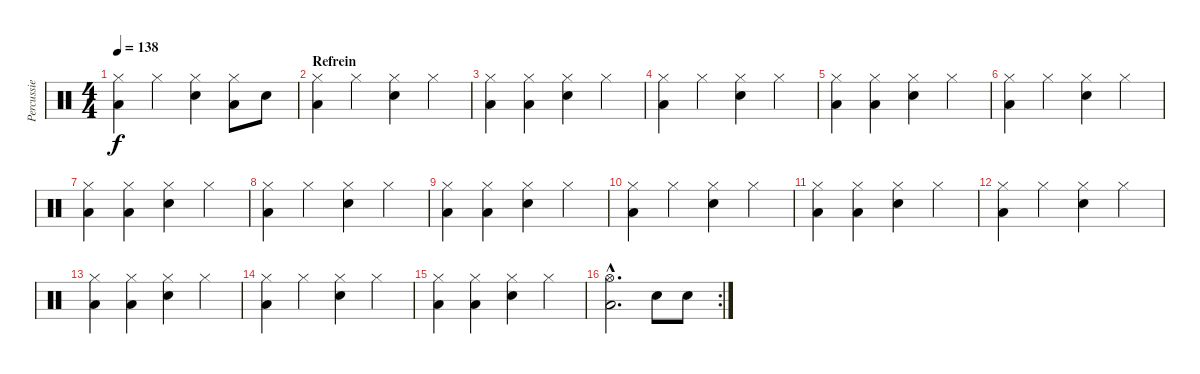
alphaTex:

\track ("Percussie" "Percussie") {instrument percussion}
\staff {score}
\articulation defaults
\ts (4 4)
\tempo 138
\clef neutral
\ks c
("Hi-Hat (closed)" "Low Floor Tom (hit)").4{dy f} "Hi-Hat (closed)".4 ("Hi-Hat (closed)" "Snare (hit) 2").4 ("Hi-Hat (closed)" "Low Floor Tom (hit)").8 "Snare (hit) 2".8 |
\section ("" "Refrein")
("Hi-Hat (closed)" "Low Floor Tom (hit)").4 "Hi-Hat (closed)".4 ("Hi-Hat (closed)" "Snare (hit) 2").4 "Hi-Hat (closed)".4 |
("Hi-Hat (closed)" "Low Floor Tom (hit)").4 ("Hi-Hat (closed)" "Low Floor Tom (hit)").4 ("Hi-Hat (closed)" "Snare (hit) 2").4 "Hi-Hat (closed)".4 |
("Hi-Hat (closed)" "Low Floor Tom (hit)").4 "Hi-Hat (closed)".4 ("Hi-Hat (closed)" "Snare (hit) 2").4 "Hi-Hat (closed)".4 |
("Hi-Hat (closed)" "Low Floor Tom (hit)").4 ("Hi-Hat (closed)" "Low Floor Tom (hit)").4 ("Hi-Hat (closed)" "Snare (hit) 2").4 "Hi-Hat (closed)".4 |
("Hi-Hat (closed)" "Low Floor Tom (hit)").4 "Hi-Hat (closed)".4 ("Hi-Hat (closed)" "Snare (hit) 2").4 "Hi-Hat (closed)".4 |
("Hi-Hat (closed)" "Low Floor Tom (hit)").4 ("Hi-Hat (closed)" "Low Floor Tom (hit)").4 ("Hi-Hat (closed)" "Snare (hit) 2").4 "Hi-Hat (closed)".4 |
("Hi-Hat (closed)" "Low Floor Tom (hit)").4 "Hi-Hat (closed)".4 ("Hi-Hat (closed)" "Snare (hit) 2").4 "Hi-Hat (closed)".4 |
("Hi-Hat (closed)" "Low Floor Tom (hit)").4 ("Hi-Hat (closed)" "Low Floor Tom (hit)").4 ("Hi-Hat (closed)" "Snare (hit) 2").4 "Hi-Hat (closed)".4 |
("Hi-Hat (closed)" "Low Floor Tom (hit)").4 "Hi-Hat (closed)".4 ("Hi-Hat (closed)" "Snare (hit) 2").4 "Hi-Hat (closed)".4 |
("Hi-Hat (closed)" "Low Floor Tom (hit)").4 ("Hi-Hat (closed)" "Low Floor Tom (hit)").4 ("Hi-Hat (closed)" "Snare (hit) 2").4 "Hi-Hat (closed)".4 |
("Hi-Hat (closed)" "Low Floor Tom (hit)").4 "Hi-Hat (closed)".4 ("Hi-Hat (closed)" "Snare (hit) 2").4 "Hi-Hat (closed)".4 |
("Hi-Hat (closed)" "Low Floor Tom (hit)").4 ("Hi-Hat (closed)" "Low Floor Tom (hit)").4 ("Hi-Hat (closed)" "Snare (hit) 2").4 "Hi-Hat (closed)".4 |
("Hi-Hat (closed)" "Low Floor Tom (hit)").4 "Hi-Hat (closed)".4 ("Hi-Hat (closed)" "Snare (hit) 2").4 "Hi-Hat (closed)".4 |
("Hi-Hat (closed)" "Low Floor Tom (hit)").4 ("Hi-Hat (closed)" "Low Floor Tom (hit)").4 ("Hi-Hat (closed)" "Snare (hit) 2").4 "Hi-Hat (closed)".4 |
\rc 2
("Hi-Hat (open)"{hac} "Low Floor Tom (hit)"{hac}).2{d} "Snare (hit) 2".8 "Snare (hit) 2".8
